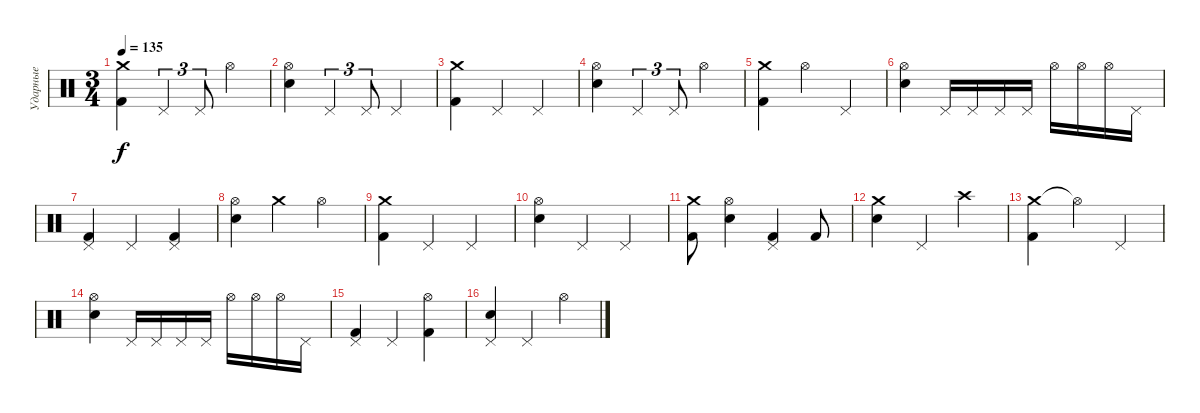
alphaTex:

\track ("Ударные" "Ударные") {instrument percussion}
\staff {score}
\articulation defaults
\ts (3 4)
\tempo 135
\clef neutral
\ks c
("Crash medium (hit)" "Kick (hit) 2").4{dy f} "Pedal Hi-Hat (hit)".4{tu (3 2)} "Pedal Hi-Hat (hit)".8{tu (3 2)} "Hi-Hat (open)".4 |
("Hi-Hat (open)" "Electric Snare (hit)").4 "Pedal Hi-Hat (hit)".4{tu (3 2)} "Pedal Hi-Hat (hit)".8{tu (3 2)} "Pedal Hi-Hat (hit)".4 |
("Crash medium (hit)" "Kick (hit) 2").4 "Pedal Hi-Hat (hit)".4 "Pedal Hi-Hat (hit)".4 |
("Hi-Hat (open)" "Electric Snare (hit)").4 "Pedal Hi-Hat (hit)".4{tu (3 2)} "Pedal Hi-Hat (hit)".8{tu (3 2)} "Hi-Hat (open)".4 |
("Crash medium (hit)" "Kick (hit) 2").4 "Hi-Hat (open)".4 "Pedal Hi-Hat (hit)".4 |
("Hi-Hat (open)" "Electric Snare (hit)").4 "Pedal Hi-Hat (hit)".16 "Pedal Hi-Hat (hit)".16 "Pedal Hi-Hat (hit)".16 "Pedal Hi-Hat (hit)".16 "Hi-Hat (open)".16 "Hi-Hat (open)".16 "Hi-Hat (open)".16 "Pedal Hi-Hat (hit)".16 |
("Pedal Hi-Hat (hit)" "Kick (hit) 2").4 "Pedal Hi-Hat (hit)".4 ("Pedal Hi-Hat (hit)" "Kick (hit) 2").4 |
("Hi-Hat (open)" "Electric Snare (hit)").4 "Crash medium (hit)".4 "Hi-Hat (open)".4 |
("Crash medium (hit)" "Kick (hit) 2").4 "Pedal Hi-Hat (hit)".4 "Pedal Hi-Hat (hit)".4 |
("Hi-Hat (open)" "Electric Snare (hit)").4 "Pedal Hi-Hat (hit)".4 "Pedal Hi-Hat (hit)".4 |
("Crash medium (hit)" "Kick (hit) 2").8 ("Hi-Hat (open)" "Electric Snare (hit)").4 ("Pedal Hi-Hat (hit)" "Kick (hit) 2").4 "Kick (hit) 2".8 |
("Crash medium (hit)" "Electric Snare (hit)").4 "Pedal Hi-Hat (hit)".4 "Crash high (hit)".4 |
("Crash medium (hit)" "Kick (hit) 2").4 "Hi-Hat (open)"{t}.4 "Pedal Hi-Hat (hit)".4 |
("Hi-Hat (open)" "Electric Snare (hit)").4 "Pedal Hi-Hat (hit)".16 "Pedal Hi-Hat (hit)".16 "Pedal Hi-Hat (hit)".16 "Pedal Hi-Hat (hit)".16 "Hi-Hat (open)".16 "Hi-Hat (open)".16 "Hi-Hat (open)".16 "Pedal Hi-Hat (hit)".16 |
("Pedal Hi-Hat (hit)" "Kick (hit) 2").4 "Pedal Hi-Hat (hit)".4 ("Hi-Hat (open)" "Kick (hit) 2").4 |
("Pedal Hi-Hat (hit)" "Electric Snare (hit)").4 "Pedal Hi-Hat (hit)".4 "Hi-Hat (open)".4
